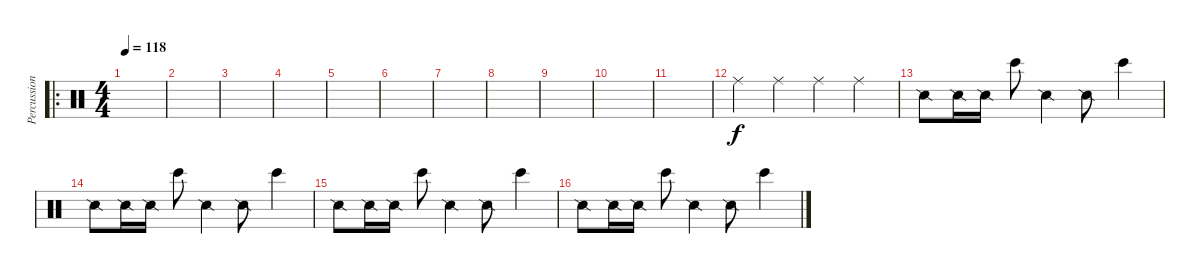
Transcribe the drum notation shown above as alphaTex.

\track ("Percussion" "Percussion") {instrument percussion}
\staff {score}
\articulation defaults
\ro
\ts (4 4)
\tempo 118
\clef neutral
\ks c
|
|
|
|
|
|
|
|
|
|
|
"Ride (middle)".4 "Ride (middle)".4 "Ride (middle)".4 "Ride (middle)".4 |
"Snare (side stick) 2".8 "Snare (side stick) 2".16 "Snare (side stick) 2".16 "Bongo High (hit)".8 "Snare (side stick) 2".4 "Snare (side stick) 2".8 "Bongo High (hit)".4 |
"Snare (side stick) 2".8 "Snare (side stick) 2".16 "Snare (side stick) 2".16 "Bongo High (hit)".8 "Snare (side stick) 2".4 "Snare (side stick) 2".8 "Bongo High (hit)".4 |
"Snare (side stick) 2".8 "Snare (side stick) 2".16 "Snare (side stick) 2".16 "Bongo High (hit)".8 "Snare (side stick) 2".4 "Snare (side stick) 2".8 "Bongo High (hit)".4 |
"Snare (side stick) 2".8 "Snare (side stick) 2".16 "Snare (side stick) 2".16 "Bongo High (hit)".8 "Snare (side stick) 2".4 "Snare (side stick) 2".8 "Bongo High (hit)".4
